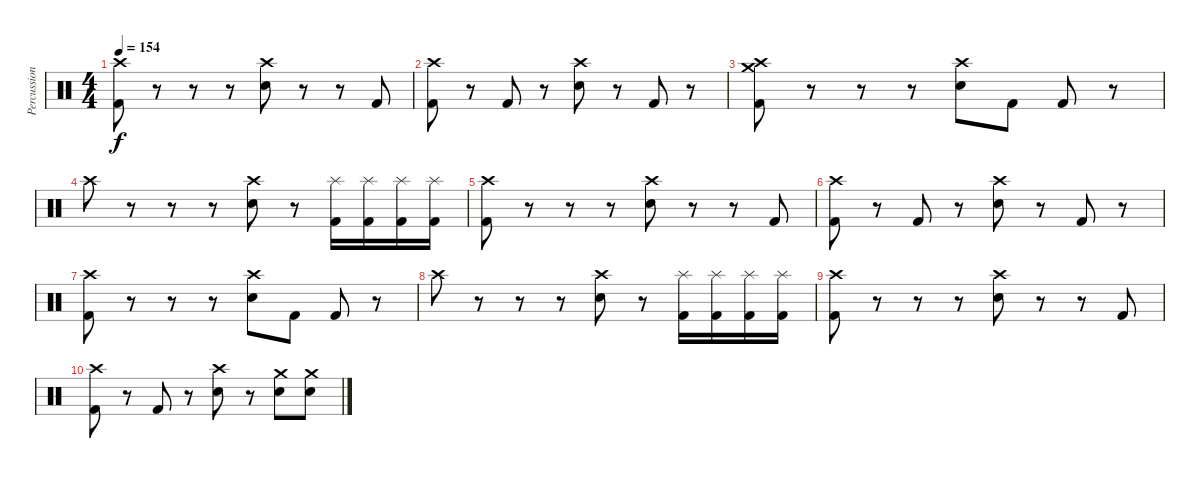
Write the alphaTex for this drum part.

\track ("Percussion" "Percussion") {instrument percussion}
\staff {score}
\articulation defaults
\ts (4 4)
\tempo 154
\clef neutral
\ks c
("Crash high (hit)" "Kick (hit) 2").8{dy f} r.8 r.8 r.8 ("Crash high (hit)" "Snare (hit) 2").8 r.8 r.8 "Kick (hit) 2".8 |
("Crash high (hit)" "Kick (hit) 2").8 r.8 "Kick (hit) 2".8 r.8 ("Crash high (hit)" "Snare (hit) 2").8 r.8 "Kick (hit) 2".8 r.8 |
("Crash medium (hit)" "Crash high (hit)" "Kick (hit) 2").8 r.8 r.8 r.8 ("Crash high (hit)" "Snare (hit) 2").8 "Kick (hit) 2".8 "Kick (hit) 2".8 r.8 |
"Crash high (hit)".8 r.8 r.8 r.8 ("Crash high (hit)" "Snare (hit) 2").8 r.8 ("Splash (hit)" "Kick (hit) 2").16 ("Splash (hit)" "Kick (hit) 2").16 ("Splash (hit)" "Kick (hit) 2").16 ("Splash (hit)" "Kick (hit) 2").16 |
("Crash high (hit)" "Kick (hit) 2").8 r.8 r.8 r.8 ("Crash high (hit)" "Snare (hit) 2").8 r.8 r.8 "Kick (hit) 2".8 |
("Crash high (hit)" "Kick (hit) 2").8 r.8 "Kick (hit) 2".8 r.8 ("Crash high (hit)" "Snare (hit) 2").8 r.8 "Kick (hit) 2".8 r.8 |
("Crash high (hit)" "Kick (hit) 2").8 r.8 r.8 r.8 ("Crash high (hit)" "Snare (hit) 2").8 "Kick (hit) 2".8 "Kick (hit) 2".8 r.8 |
"Crash high (hit)".8 r.8 r.8 r.8 ("Crash high (hit)" "Snare (hit) 2").8 r.8 ("Splash (hit)" "Kick (hit) 2").16 ("Splash (hit)" "Kick (hit) 2").16 ("Splash (hit)" "Kick (hit) 2").16 ("Splash (hit)" "Kick (hit) 2").16 |
("Crash high (hit)" "Kick (hit) 2").8 r.8 r.8 r.8 ("Crash high (hit)" "Snare (hit) 2").8 r.8 r.8 "Kick (hit) 2".8 |
("Crash high (hit)" "Kick (hit) 2").8 r.8 "Kick (hit) 2".8 r.8 ("Crash high (hit)" "Snare (hit) 2").8 r.8 ("Crash medium (hit)" "Snare (hit) 2").8 ("Crash medium (hit)" "Snare (hit) 2").8
